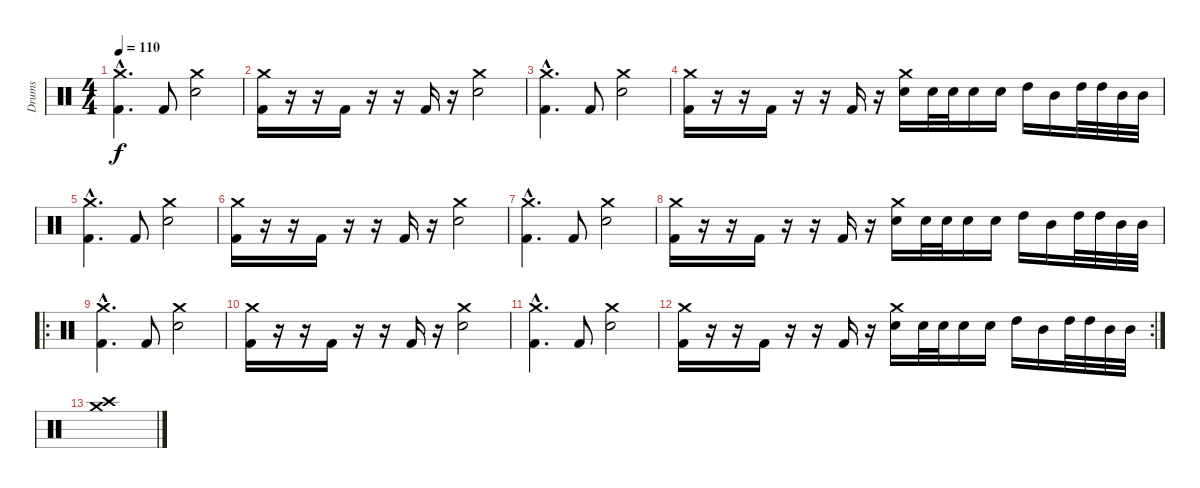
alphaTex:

\track ("Drums" "Drums") {instrument percussion}
\staff {score}
\articulation defaults
\ts (4 4)
\tempo 110
\clef neutral
\ks c
("Crash medium (hit)"{hac} "Kick (hit) 2"{hac}).4{d dy f} "Kick (hit) 2".8 ("Crash medium (hit)" "Electric Snare (hit)").2 |
("Crash medium (hit)" "Kick (hit) 2").16 r.16 r.16 "Kick (hit) 2".16 r.16 r.16 "Kick (hit) 2".16 r.16 ("Crash medium (hit)" "Electric Snare (hit)").2 |
("Crash medium (hit)"{hac} "Kick (hit) 2"{hac}).4{d} "Kick (hit) 2".8 ("Crash medium (hit)" "Electric Snare (hit)").2 |
("Crash medium (hit)" "Kick (hit) 2").16 r.16 r.16 "Kick (hit) 2".16 r.16 r.16 "Kick (hit) 2".16 r.16 ("Crash medium (hit)" "Electric Snare (hit)").16 "Electric Snare (hit)".32 "Electric Snare (hit)".32 "Electric Snare (hit)".16 "Electric Snare (hit)".16 "High Tom (hit)".16 "Mid Tom (hit)".16 "High Tom (hit)".32 "High Tom (hit)".32 "Mid Tom (hit)".32 "Mid Tom (hit)".32 |
("Crash medium (hit)"{hac} "Kick (hit) 2"{hac}).4{d} "Kick (hit) 2".8 ("Crash medium (hit)" "Electric Snare (hit)").2 |
("Crash medium (hit)" "Kick (hit) 2").16 r.16 r.16 "Kick (hit) 2".16 r.16 r.16 "Kick (hit) 2".16 r.16 ("Crash medium (hit)" "Electric Snare (hit)").2 |
("Crash medium (hit)"{hac} "Kick (hit) 2"{hac}).4{d} "Kick (hit) 2".8 ("Crash medium (hit)" "Electric Snare (hit)").2 |
("Crash medium (hit)" "Kick (hit) 2").16 r.16 r.16 "Kick (hit) 2".16 r.16 r.16 "Kick (hit) 2".16 r.16 ("Crash medium (hit)" "Electric Snare (hit)").16 "Electric Snare (hit)".32 "Electric Snare (hit)".32 "Electric Snare (hit)".16 "Electric Snare (hit)".16 "High Tom (hit)".16 "Mid Tom (hit)".16 "High Tom (hit)".32 "High Tom (hit)".32 "Mid Tom (hit)".32 "Mid Tom (hit)".32 |
\ro
("Crash medium (hit)"{hac} "Kick (hit) 2"{hac}).4{d} "Kick (hit) 2".8 ("Crash medium (hit)" "Electric Snare (hit)").2 |
("Crash medium (hit)" "Kick (hit) 2").16 r.16 r.16 "Kick (hit) 2".16 r.16 r.16 "Kick (hit) 2".16 r.16 ("Crash medium (hit)" "Electric Snare (hit)").2 |
("Crash medium (hit)"{hac} "Kick (hit) 2"{hac}).4{d} "Kick (hit) 2".8 ("Crash medium (hit)" "Electric Snare (hit)").2 |
\rc 2
("Crash medium (hit)" "Kick (hit) 2").16 r.16 r.16 "Kick (hit) 2".16 r.16 r.16 "Kick (hit) 2".16 r.16 ("Crash medium (hit)" "Electric Snare (hit)").16 "Electric Snare (hit)".32 "Electric Snare (hit)".32 "Electric Snare (hit)".16 "Electric Snare (hit)".16 "High Tom (hit)".16 "Mid Tom (hit)".16 "High Tom (hit)".32 "High Tom (hit)".32 "Mid Tom (hit)".32 "Mid Tom (hit)".32 |
("Crash high (hit)" "Crash medium (hit)").1
